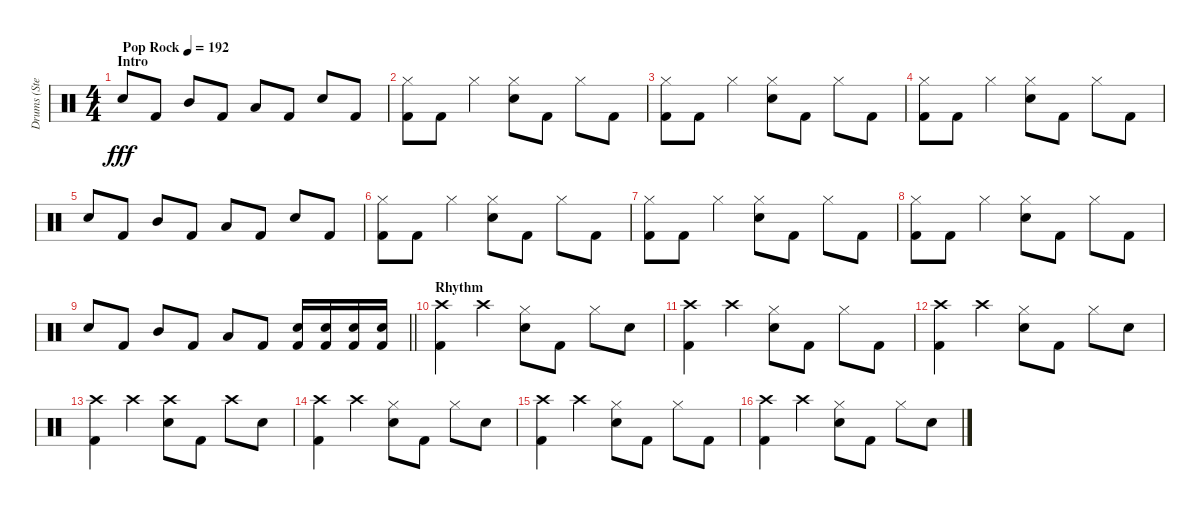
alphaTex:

\track ("Drums (Stevo32)" "Drums (Ste") {instrument percussion}
\staff {score}
\articulation defaults
\ts (4 4)
\section ("" "Intro")
\tempo (192 "Pop Rock")
\clef neutral
\ks c "Electric Snare (hit)".8{dy fff} "Kick (hit) 2".8 "Mid Tom (hit)".8 "Kick (hit) 2".8 "Low Tom (hit)".8 "Kick (hit) 2".8 "Electric Snare (hit)".8 "Kick (hit) 2".8
|
("Hi-Hat (closed)" "Kick (hit) 2").8 "Kick (hit) 2".8 "Hi-Hat (closed)".4 ("Hi-Hat (closed)" "Electric Snare (hit)").8 "Kick (hit) 2".8 "Hi-Hat (closed)".8 "Kick (hit) 2".8 |
("Hi-Hat (closed)" "Kick (hit) 2").8 "Kick (hit) 2".8 "Hi-Hat (closed)".4 ("Hi-Hat (closed)" "Electric Snare (hit)").8 "Kick (hit) 2".8 "Hi-Hat (closed)".8 "Kick (hit) 2".8 |
("Hi-Hat (closed)" "Kick (hit) 2").8 "Kick (hit) 2".8 "Hi-Hat (closed)".4 ("Hi-Hat (closed)" "Electric Snare (hit)").8 "Kick (hit) 2".8 "Hi-Hat (closed)".8 "Kick (hit) 2".8 |
"Electric Snare (hit)".8 "Kick (hit) 2".8 "Mid Tom (hit)".8 "Kick (hit) 2".8 "Low Tom (hit)".8 "Kick (hit) 2".8 "Electric Snare (hit)".8 "Kick (hit) 2".8 |
("Hi-Hat (closed)" "Kick (hit) 2").8 "Kick (hit) 2".8 "Hi-Hat (closed)".4 ("Hi-Hat (closed)" "Electric Snare (hit)").8 "Kick (hit) 2".8 "Hi-Hat (closed)".8 "Kick (hit) 2".8 |
("Hi-Hat (closed)" "Kick (hit) 2").8 "Kick (hit) 2".8 "Hi-Hat (closed)".4 ("Hi-Hat (closed)" "Electric Snare (hit)").8 "Kick (hit) 2".8 "Hi-Hat (closed)".8 "Kick (hit) 2".8 |
("Hi-Hat (closed)" "Kick (hit) 2").8 "Kick (hit) 2".8 "Hi-Hat (closed)".4 ("Hi-Hat (closed)" "Electric Snare (hit)").8 "Kick (hit) 2".8 "Hi-Hat (closed)".8 "Kick (hit) 2".8 |
\barLineRight lightlight "Electric Snare (hit)".8 "Kick (hit) 2".8 "Mid Tom (hit)".8 "Kick (hit) 2".8 "Low Tom (hit)".8 "Kick (hit) 2".8
("Electric Snare (hit)" "Kick (hit) 2").16 ("Electric Snare (hit)" "Kick (hit) 2").16 ("Electric Snare (hit)" "Kick (hit) 2").16 ("Electric Snare (hit)" "Kick (hit) 2").16 |
\section ("" "Rhythm")
("Crash high (hit)" "Kick (hit) 2").4 "Crash high (hit)".4 ("Hi-Hat (closed)" "Electric Snare (hit)").8 "Kick (hit) 2".8 "Hi-Hat (closed)".8 "Electric Snare (hit)".8 |
("Crash high (hit)" "Kick (hit) 2").4 "Crash high (hit)".4 ("Hi-Hat (closed)" "Electric Snare (hit)").8 "Kick (hit) 2".8 "Hi-Hat (closed)".8 "Kick (hit) 2".8 |
("Crash high (hit)" "Kick (hit) 2").4 "Crash high (hit)".4 ("Hi-Hat (closed)" "Electric Snare (hit)").8 "Kick (hit) 2".8 "Hi-Hat (closed)".8 "Electric Snare (hit)".8 |
("Crash high (hit)" "Kick (hit) 2").4 "Crash high (hit)".4 ("Crash high (hit)" "Electric Snare (hit)").8 "Kick (hit) 2".8 "Crash high (hit)".8 "Electric Snare (hit)".8 |
("Crash high (hit)" "Kick (hit) 2").4 "Crash high (hit)".4 ("Hi-Hat (closed)" "Electric Snare (hit)").8 "Kick (hit) 2".8 "Hi-Hat (closed)".8 "Electric Snare (hit)".8 |
("Crash high (hit)" "Kick (hit) 2").4 "Crash high (hit)".4 ("Hi-Hat (closed)" "Electric Snare (hit)").8 "Kick (hit) 2".8 "Hi-Hat (closed)".8 "Kick (hit) 2".8 |
("Crash high (hit)" "Kick (hit) 2").4 "Crash high (hit)".4 ("Hi-Hat (closed)" "Electric Snare (hit)").8 "Kick (hit) 2".8 "Hi-Hat (closed)".8 "Electric Snare (hit)".8
